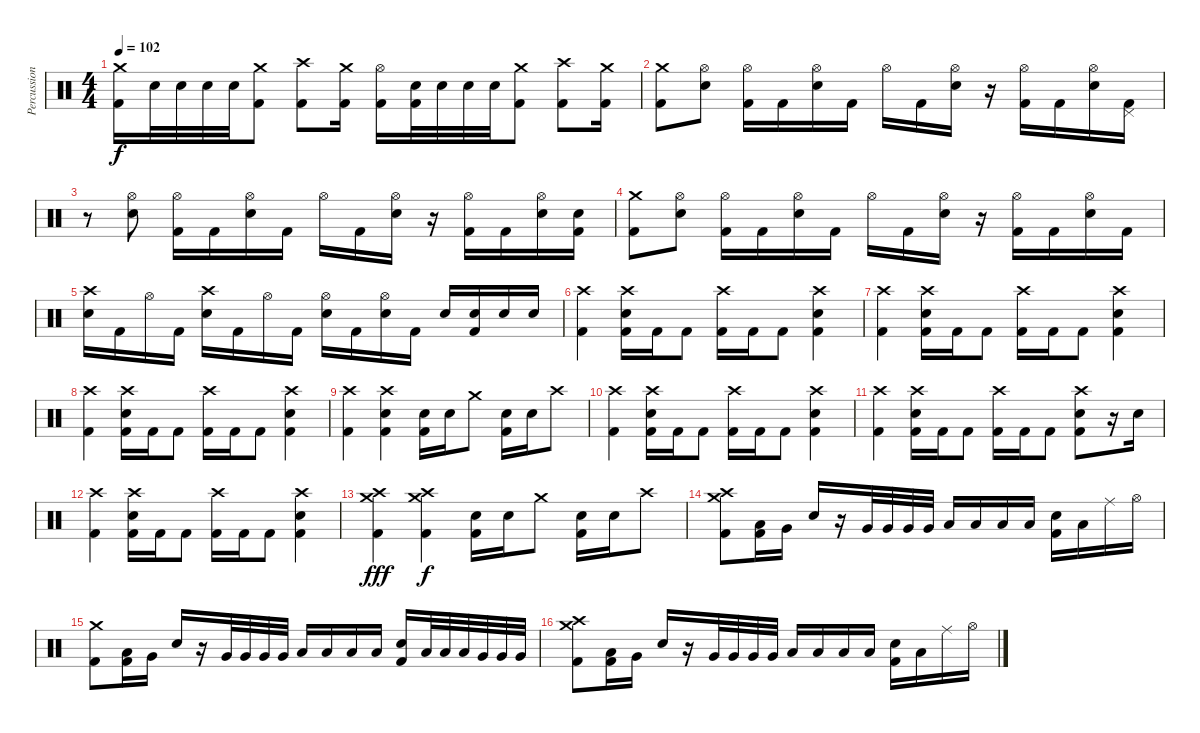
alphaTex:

\track ("Percussion" "Percussion") {instrument percussion}
\staff {score}
\articulation defaults
\ts (4 4)
\tempo 102
\clef neutral
\ks c
("Crash medium (hit)" "Kick (hit) 2").16{dy f} "Electric Snare (hit)".32 "Electric Snare (hit)".32 "Electric Snare (hit)".32 "Electric Snare (hit)".32 ("Crash medium (hit)" "Kick (hit) 2").8 ("Crash high (hit)" "Kick (hit) 2").8 ("Crash medium (hit)" "Kick (hit) 2").16 ("Hi-Hat (open)" "Kick (hit) 2").16 ("Electric Snare (hit)" "Kick (hit) 2").32 "Electric Snare (hit)".32 "Electric Snare (hit)".32 "Electric Snare (hit)".32 ("Crash medium (hit)" "Kick (hit) 2").8 ("Crash high (hit)" "Kick (hit) 2").8 ("Crash medium (hit)" "Kick (hit) 2").16 |
("Crash medium (hit)" "Kick (hit) 2").8 ("Hi-Hat (open)" "Electric Snare (hit)").8 ("Hi-Hat (open)" "Kick (hit) 2").16 "Kick (hit) 2".16 ("Hi-Hat (open)" "Electric Snare (hit)").16 "Kick (hit) 2".16 "Hi-Hat (open)".16 "Kick (hit) 2".16 ("Hi-Hat (open)" "Electric Snare (hit)").16 r.16 ("Hi-Hat (open)" "Kick (hit) 2").16 "Kick (hit) 2".16 ("Hi-Hat (open)" "Electric Snare (hit)").16 ("Pedal Hi-Hat (hit)" "Kick (hit) 2").16 |
r.8 ("Hi-Hat (open)" "Electric Snare (hit)").8 ("Hi-Hat (open)" "Kick (hit) 2").16 "Kick (hit) 2".16 ("Hi-Hat (open)" "Electric Snare (hit)").16 "Kick (hit) 2".16 "Hi-Hat (open)".16 "Kick (hit) 2".16 ("Hi-Hat (open)" "Electric Snare (hit)").16 r.16 ("Hi-Hat (open)" "Kick (hit) 2").16 "Kick (hit) 2".16 ("Hi-Hat (open)" "Electric Snare (hit)").16 ("Electric Snare (hit)" "Kick (hit) 2").16 |
("Crash medium (hit)" "Kick (hit) 2").8 ("Hi-Hat (open)" "Electric Snare (hit)").8 ("Hi-Hat (open)" "Kick (hit) 2").16 "Kick (hit) 2".16 ("Hi-Hat (open)" "Electric Snare (hit)").16 "Kick (hit) 2".16 "Hi-Hat (open)".16 "Kick (hit) 2".16 ("Hi-Hat (open)" "Electric Snare (hit)").16 r.16 ("Hi-Hat (open)" "Kick (hit) 2").16 "Kick (hit) 2".16 ("Hi-Hat (open)" "Electric Snare (hit)").16 "Kick (hit) 2".16 |
("Crash high (hit)" "Electric Snare (hit)").16 "Kick (hit) 2".16 "Hi-Hat (open)".16 "Kick (hit) 2".16 ("Crash high (hit)" "Electric Snare (hit)").16 "Kick (hit) 2".16 "Hi-Hat (open)".16 "Kick (hit) 2".16 ("Hi-Hat (open)" "Electric Snare (hit)").16 "Kick (hit) 2".16 ("Hi-Hat (open)" "Electric Snare (hit)").16 "Kick (hit) 2".16 "Electric Snare (hit)".16 ("Electric Snare (hit)" "Kick (hit) 2").16 "Electric Snare (hit)".16 "Electric Snare (hit)".16 |
("Crash high (hit)" "Kick (hit) 2").4 ("Crash high (hit)" "Electric Snare (hit)" "Kick (hit) 2").16 "Kick (hit) 2".16 "Kick (hit) 2".8 ("Crash high (hit)" "Kick (hit) 2").16 "Kick (hit) 2".16 "Kick (hit) 2".8 ("Crash high (hit)" "Electric Snare (hit)" "Kick (hit) 2").4 |
("Crash high (hit)" "Kick (hit) 2").4 ("Crash high (hit)" "Electric Snare (hit)" "Kick (hit) 2").16 "Kick (hit) 2".16 "Kick (hit) 2".8 ("Crash high (hit)" "Kick (hit) 2").16 "Kick (hit) 2".16 "Kick (hit) 2".8 ("Crash high (hit)" "Electric Snare (hit)" "Kick (hit) 2").4 |
("Crash high (hit)" "Kick (hit) 2").4 ("Crash high (hit)" "Electric Snare (hit)" "Kick (hit) 2").16 "Kick (hit) 2".16 "Kick (hit) 2".8 ("Crash high (hit)" "Kick (hit) 2").16 "Kick (hit) 2".16 "Kick (hit) 2".8 ("Crash high (hit)" "Electric Snare (hit)" "Kick (hit) 2").4 |
("Crash high (hit)" "Kick (hit) 2").4 ("Crash high (hit)" "Electric Snare (hit)" "Kick (hit) 2").4 ("Electric Snare (hit)" "Kick (hit) 2").16 "Electric Snare (hit)".16 "Crash medium (hit)".8 ("Electric Snare (hit)" "Kick (hit) 2").16 "Electric Snare (hit)".16 "Crash high (hit)".8 |
("Crash high (hit)" "Kick (hit) 2").4 ("Crash high (hit)" "Electric Snare (hit)" "Kick (hit) 2").16 "Kick (hit) 2".16 "Kick (hit) 2".8 ("Crash high (hit)" "Kick (hit) 2").16 "Kick (hit) 2".16 "Kick (hit) 2".8 ("Crash high (hit)" "Electric Snare (hit)" "Kick (hit) 2").4 |
("Crash high (hit)" "Kick (hit) 2").4 ("Crash high (hit)" "Electric Snare (hit)" "Kick (hit) 2").16 "Kick (hit) 2".16 "Kick (hit) 2".8 ("Crash high (hit)" "Kick (hit) 2").16 "Kick (hit) 2".16 "Kick (hit) 2".8 ("Crash high (hit)" "Electric Snare (hit)" "Kick (hit) 2").8 r.16 "Electric Snare (hit)".16 |
("Crash high (hit)" "Kick (hit) 2").4 ("Crash high (hit)" "Electric Snare (hit)" "Kick (hit) 2").16 "Kick (hit) 2".16 "Kick (hit) 2".8 ("Crash high (hit)" "Kick (hit) 2").16 "Kick (hit) 2".16 "Kick (hit) 2".8 ("Crash high (hit)" "Electric Snare (hit)" "Kick (hit) 2").4 |
("Crash high (hit)" "Crash medium (hit)" "Kick (hit) 2").4{dy fff} ("Crash high (hit)" "Crash medium (hit)" "Kick (hit) 2").4{dy f} ("Electric Snare (hit)" "Kick (hit) 2").16 "Electric Snare (hit)".16 "Crash medium (hit)".8 ("Electric Snare (hit)" "Kick (hit) 2").16 "Electric Snare (hit)".16 "Crash high (hit)".8 |
("Crash medium (hit)" "Crash high (hit)" "Kick (hit) 2").8 ("Low Tom (hit)" "Kick (hit) 2").16 "Very Low Tom (hit)".16 "Electric Snare (hit)".16 r.16 "Very Low Tom (hit)".32 "Very Low Tom (hit)".32 "Very Low Tom (hit)".32 "Very Low Tom (hit)".32 "Low Tom (hit)".16 "Low Tom (hit)".16 "Low Tom (hit)".16 "Low Tom (hit)".16 ("Electric Snare (hit)" "Kick (hit) 2").16 "Low Tom (hit)".16 "Ride (middle)".16 "Hi-Hat (open)".16 |
("Crash medium (hit)" "Kick (hit) 2").8 ("Low Tom (hit)" "Kick (hit) 2").16 "Very Low Tom (hit)".16 "Electric Snare (hit)".16 r.16 "Very Low Tom (hit)".32 "Very Low Tom (hit)".32 "Very Low Tom (hit)".32 "Very Low Tom (hit)".32 "Low Tom (hit)".16 "Low Tom (hit)".16 "Low Tom (hit)".16 "Low Tom (hit)".16 ("Electric Snare (hit)" "Kick (hit) 2").16 "Low Tom (hit)".32 "Low Tom (hit)".32 "Low Tom (hit)".32 "Very Low Tom (hit)".32 "Very Low Tom (hit)".32 "Very Low Tom (hit)".32 |
("Crash medium (hit)" "Crash high (hit)" "Kick (hit) 2").8 ("Low Tom (hit)" "Kick (hit) 2").16 "Very Low Tom (hit)".16 "Electric Snare (hit)".16 r.16 "Very Low Tom (hit)".32 "Very Low Tom (hit)".32 "Very Low Tom (hit)".32 "Very Low Tom (hit)".32 "Low Tom (hit)".16 "Low Tom (hit)".16 "Low Tom (hit)".16 "Low Tom (hit)".16 ("Electric Snare (hit)" "Kick (hit) 2").16 "Low Tom (hit)".16 "Ride (middle)".16 "Hi-Hat (open)".16
